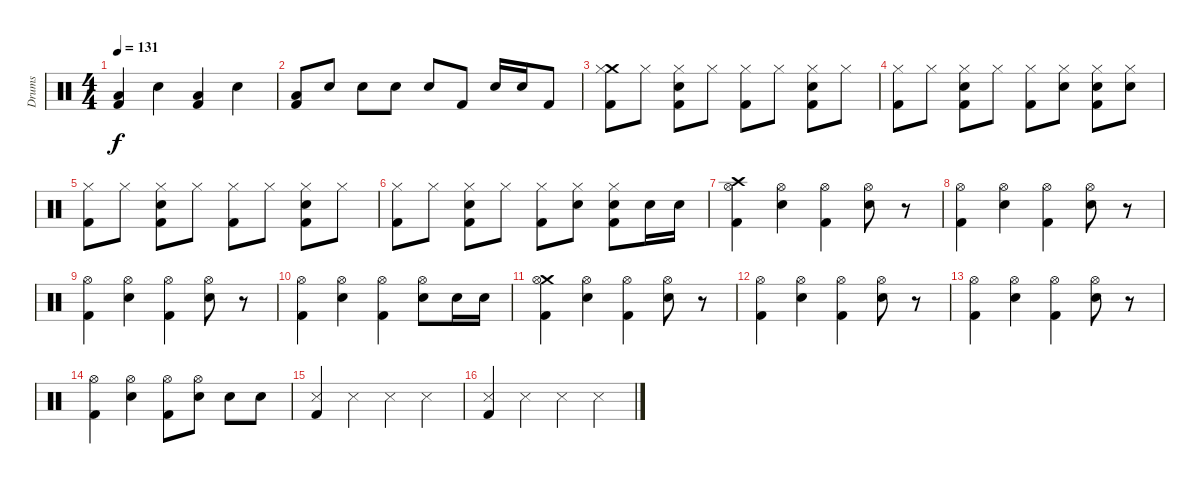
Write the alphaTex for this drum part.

\track ("Drums" "Drums") {instrument percussion}
\staff {score}
\articulation defaults
\ts (4 4)
\tempo 131
\clef neutral
\ks c
("Low Tom (hit)" "Kick (hit) 2").4{dy f} "Electric Snare (hit)".4 ("Low Tom (hit)" "Kick (hit) 2").4 "Electric Snare (hit)".4 |
("Low Tom (hit)" "Kick (hit) 2").8 "Electric Snare (hit)".8 "Electric Snare (hit)".8 "Electric Snare (hit)".8 "Electric Snare (hit)".8 "Kick (hit) 2".8 "Electric Snare (hit)".16 "Electric Snare (hit)".16 "Kick (hit) 2".8 |
("Crash medium (hit)" "Hi-Hat (closed)" "Kick (hit) 2").8 "Hi-Hat (closed)".8 ("Hi-Hat (closed)" "Electric Snare (hit)" "Kick (hit) 2").8 "Hi-Hat (closed)".8 ("Hi-Hat (closed)" "Kick (hit) 2").8 "Hi-Hat (closed)".8 ("Hi-Hat (closed)" "Electric Snare (hit)" "Kick (hit) 2").8 "Hi-Hat (closed)".8 |
("Hi-Hat (closed)" "Kick (hit) 2").8 "Hi-Hat (closed)".8 ("Hi-Hat (closed)" "Electric Snare (hit)" "Kick (hit) 2").8 "Hi-Hat (closed)".8 ("Hi-Hat (closed)" "Kick (hit) 2").8 ("Hi-Hat (closed)" "Electric Snare (hit)").8 ("Hi-Hat (closed)" "Electric Snare (hit)" "Kick (hit) 2").8 ("Hi-Hat (closed)" "Electric Snare (hit)").8 |
("Hi-Hat (closed)" "Kick (hit) 2").8 "Hi-Hat (closed)".8 ("Hi-Hat (closed)" "Electric Snare (hit)" "Kick (hit) 2").8 "Hi-Hat (closed)".8 ("Hi-Hat (closed)" "Kick (hit) 2").8 "Hi-Hat (closed)".8 ("Hi-Hat (closed)" "Electric Snare (hit)" "Kick (hit) 2").8 "Hi-Hat (closed)".8 |
("Hi-Hat (closed)" "Kick (hit) 2").8 "Hi-Hat (closed)".8 ("Hi-Hat (closed)" "Electric Snare (hit)" "Kick (hit) 2").8 "Hi-Hat (closed)".8 ("Hi-Hat (closed)" "Kick (hit) 2").8 ("Hi-Hat (closed)" "Electric Snare (hit)").8 ("Hi-Hat (closed)" "Electric Snare (hit)" "Kick (hit) 2").8 "Electric Snare (hit)".16 "Electric Snare (hit)".16 |
("Crash high (hit)" "Hi-Hat (open)" "Kick (hit) 2").4 ("Hi-Hat (open)" "Electric Snare (hit)").4 ("Hi-Hat (open)" "Kick (hit) 2").4 ("Hi-Hat (open)" "Electric Snare (hit)").8 r.8 |
("Hi-Hat (open)" "Kick (hit) 2").4 ("Hi-Hat (open)" "Electric Snare (hit)").4 ("Hi-Hat (open)" "Kick (hit) 2").4 ("Hi-Hat (open)" "Electric Snare (hit)").8 r.8 |
("Hi-Hat (open)" "Kick (hit) 2").4 ("Hi-Hat (open)" "Electric Snare (hit)").4 ("Hi-Hat (open)" "Kick (hit) 2").4 ("Hi-Hat (open)" "Electric Snare (hit)").8 r.8 |
("Hi-Hat (open)" "Kick (hit) 2").4 ("Hi-Hat (open)" "Electric Snare (hit)").4 ("Hi-Hat (open)" "Kick (hit) 2").4 ("Hi-Hat (open)" "Electric Snare (hit)").8 "Electric Snare (hit)".16 "Electric Snare (hit)".16 |
("Crash medium (hit)" "Hi-Hat (open)" "Kick (hit) 2").4 ("Hi-Hat (open)" "Electric Snare (hit)").4 ("Hi-Hat (open)" "Kick (hit) 2").4 ("Hi-Hat (open)" "Electric Snare (hit)").8 r.8 |
("Hi-Hat (open)" "Kick (hit) 2").4 ("Hi-Hat (open)" "Electric Snare (hit)").4 ("Hi-Hat (open)" "Kick (hit) 2").4 ("Hi-Hat (open)" "Electric Snare (hit)").8 r.8 |
("Hi-Hat (open)" "Kick (hit) 2").4 ("Hi-Hat (open)" "Electric Snare (hit)").4 ("Hi-Hat (open)" "Kick (hit) 2").4 ("Hi-Hat (open)" "Electric Snare (hit)").8 r.8 |
("Hi-Hat (open)" "Kick (hit) 2").4 ("Hi-Hat (open)" "Electric Snare (hit)").4 ("Hi-Hat (open)" "Kick (hit) 2").8 ("Hi-Hat (open)" "Electric Snare (hit)").8 "Electric Snare (hit)".8 "Electric Snare (hit)".8 |
("Snare (side stick) 3" "Kick (hit) 2").4 "Snare (side stick) 3".4 "Snare (side stick) 3".4 "Snare (side stick) 3".4 |
("Snare (side stick) 3" "Kick (hit) 2").4 "Snare (side stick) 3".4 "Snare (side stick) 3".4 "Snare (side stick) 3".4
